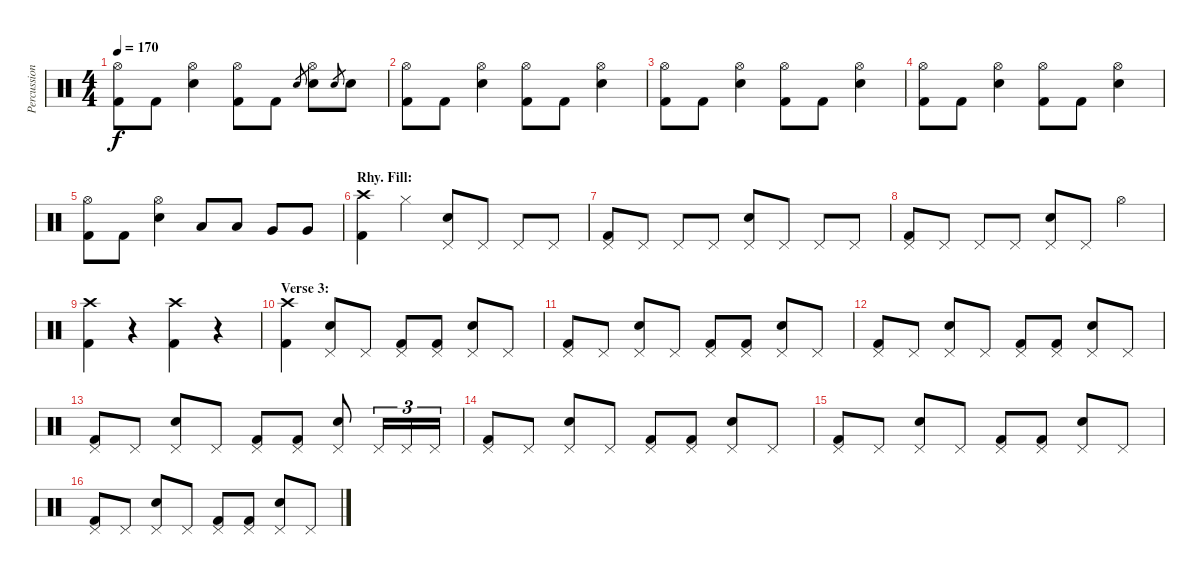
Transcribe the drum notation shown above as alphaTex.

\track ("Percussion" "Percussion") {instrument percussion}
\staff {score}
\articulation defaults
\ts (4 4)
\tempo 170
\clef neutral
\ks c
("Hi-Hat (open)" "Kick (hit) 2").8{dy f} "Kick (hit) 2".8 ("Hi-Hat (open)" "Snare (hit) 2").4 ("Hi-Hat (open)" "Kick (hit) 2").8 "Kick (hit) 2".8 "Snare (hit) 2".8{gr} ("Hi-Hat (open)" "Snare (hit) 2").8 "Snare (hit) 2".8{gr} "Snare (hit) 2".8 |
("Hi-Hat (open)" "Kick (hit) 2").8 "Kick (hit) 2".8 ("Hi-Hat (open)" "Snare (hit) 2").4 ("Hi-Hat (open)" "Kick (hit) 2").8 "Kick (hit) 2".8 ("Hi-Hat (open)" "Snare (hit) 2").4 |
("Hi-Hat (open)" "Kick (hit) 2").8 "Kick (hit) 2".8 ("Hi-Hat (open)" "Snare (hit) 2").4 ("Hi-Hat (open)" "Kick (hit) 2").8 "Kick (hit) 2".8 ("Hi-Hat (open)" "Snare (hit) 2").4 |
("Hi-Hat (open)" "Kick (hit) 2").8 "Kick (hit) 2".8 ("Hi-Hat (open)" "Snare (hit) 2").4 ("Hi-Hat (open)" "Kick (hit) 2").8 "Kick (hit) 2".8 ("Hi-Hat (open)" "Snare (hit) 2").4 |
("Hi-Hat (open)" "Kick (hit) 2").8 "Kick (hit) 2".8 ("Hi-Hat (open)" "Snare (hit) 2").4 "Low Tom (hit)".8 "Low Tom (hit)".8 "Very Low Tom (hit)".8 "Very Low Tom (hit)".8 |
\section ("" "Rhy. Fill:")
("Crash high (hit)" "Kick (hit) 2").4 "Hi-Hat (closed)".4 ("Pedal Hi-Hat (hit)" "Snare (hit) 2").8 "Pedal Hi-Hat (hit)".8 "Pedal Hi-Hat (hit)".8 "Pedal Hi-Hat (hit)".8 |
("Pedal Hi-Hat (hit)" "Kick (hit) 2").8 "Pedal Hi-Hat (hit)".8 "Pedal Hi-Hat (hit)".8 "Pedal Hi-Hat (hit)".8 ("Pedal Hi-Hat (hit)" "Snare (hit) 2").8 "Pedal Hi-Hat (hit)".8 "Pedal Hi-Hat (hit)".8 "Pedal Hi-Hat (hit)".8 |
("Pedal Hi-Hat (hit)" "Kick (hit) 2").8 "Pedal Hi-Hat (hit)".8 "Pedal Hi-Hat (hit)".8 "Pedal Hi-Hat (hit)".8 ("Pedal Hi-Hat (hit)" "Snare (hit) 2").8 "Pedal Hi-Hat (hit)".8 "Hi-Hat (open)".4 |
("Crash high (hit)" "Kick (hit) 2").4 r.4 ("Crash high (hit)" "Kick (hit) 2").4 r.4 |
\section ("" "Verse 3:")
("Crash high (hit)" "Kick (hit) 2").4 ("Pedal Hi-Hat (hit)" "Snare (hit) 2").8 "Pedal Hi-Hat (hit)".8 ("Pedal Hi-Hat (hit)" "Kick (hit) 2").8 ("Pedal Hi-Hat (hit)" "Kick (hit) 2").8 ("Pedal Hi-Hat (hit)" "Snare (hit) 2").8 "Pedal Hi-Hat (hit)".8 |
("Pedal Hi-Hat (hit)" "Kick (hit) 2").8 "Pedal Hi-Hat (hit)".8 ("Pedal Hi-Hat (hit)" "Snare (hit) 2").8 "Pedal Hi-Hat (hit)".8 ("Pedal Hi-Hat (hit)" "Kick (hit) 2").8 ("Pedal Hi-Hat (hit)" "Kick (hit) 2").8 ("Pedal Hi-Hat (hit)" "Snare (hit) 2").8 "Pedal Hi-Hat (hit)".8 |
("Pedal Hi-Hat (hit)" "Kick (hit) 2").8 "Pedal Hi-Hat (hit)".8 ("Pedal Hi-Hat (hit)" "Snare (hit) 2").8 "Pedal Hi-Hat (hit)".8 ("Pedal Hi-Hat (hit)" "Kick (hit) 2").8 ("Pedal Hi-Hat (hit)" "Kick (hit) 2").8 ("Pedal Hi-Hat (hit)" "Snare (hit) 2").8 "Pedal Hi-Hat (hit)".8 |
("Pedal Hi-Hat (hit)" "Kick (hit) 2").8 "Pedal Hi-Hat (hit)".8 ("Pedal Hi-Hat (hit)" "Snare (hit) 2").8 "Pedal Hi-Hat (hit)".8 ("Pedal Hi-Hat (hit)" "Kick (hit) 2").8 ("Pedal Hi-Hat (hit)" "Kick (hit) 2").8 ("Pedal Hi-Hat (hit)" "Snare (hit) 2").8 "Pedal Hi-Hat (hit)".16{tu (3 2)} "Pedal Hi-Hat (hit)".16{tu (3 2)} "Pedal Hi-Hat (hit)".16{tu (3 2)} |
("Pedal Hi-Hat (hit)" "Kick (hit) 2").8 "Pedal Hi-Hat (hit)".8 ("Pedal Hi-Hat (hit)" "Snare (hit) 2").8 "Pedal Hi-Hat (hit)".8 ("Pedal Hi-Hat (hit)" "Kick (hit) 2").8 ("Pedal Hi-Hat (hit)" "Kick (hit) 2").8 ("Pedal Hi-Hat (hit)" "Snare (hit) 2").8 "Pedal Hi-Hat (hit)".8 |
("Pedal Hi-Hat (hit)" "Kick (hit) 2").8 "Pedal Hi-Hat (hit)".8 ("Pedal Hi-Hat (hit)" "Snare (hit) 2").8 "Pedal Hi-Hat (hit)".8 ("Pedal Hi-Hat (hit)" "Kick (hit) 2").8 ("Pedal Hi-Hat (hit)" "Kick (hit) 2").8 ("Pedal Hi-Hat (hit)" "Snare (hit) 2").8 "Pedal Hi-Hat (hit)".8 |
("Pedal Hi-Hat (hit)" "Kick (hit) 2").8 "Pedal Hi-Hat (hit)".8 ("Pedal Hi-Hat (hit)" "Snare (hit) 2").8 "Pedal Hi-Hat (hit)".8 ("Pedal Hi-Hat (hit)" "Kick (hit) 2").8 ("Pedal Hi-Hat (hit)" "Kick (hit) 2").8 ("Pedal Hi-Hat (hit)" "Snare (hit) 2").8 "Pedal Hi-Hat (hit)".8
